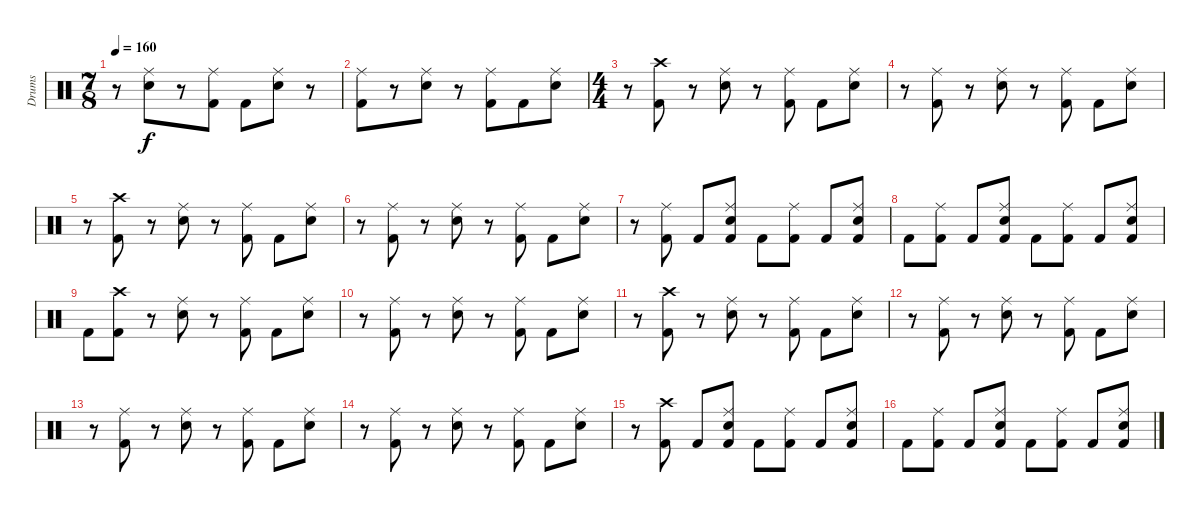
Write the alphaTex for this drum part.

\track ("Drums" "Drums") {instrument percussion}
\staff {score}
\articulation defaults
\ts (7 8)
\tempo 160
\clef neutral
\ks c
r.8{dy f} ("Snare (hit) 2" "Ride (middle)").8 r.8 ("Kick (hit) 2" "Ride (middle)").8 "Kick (hit) 2".8 ("Snare (hit) 2" "Ride (middle)").8 r.8 |
("Kick (hit) 2" "Ride (middle)").8 r.8 ("Snare (hit) 2" "Ride (middle)").8 r.8 ("Kick (hit) 2" "Ride (middle)").8 "Kick (hit) 2".8 ("Snare (hit) 2" "Ride (middle)").8 |
\ts (4 4)
r.8 ("Kick (hit) 2" "Crash high (hit)").8 r.8 ("Snare (hit) 2" "Ride (middle)").8 r.8 ("Kick (hit) 2" "Ride (middle)").8 "Kick (hit) 2".8 ("Snare (hit) 2" "Ride (middle)").8 |
r.8 ("Kick (hit) 2" "Ride (middle)").8 r.8 ("Snare (hit) 2" "Ride (middle)").8 r.8 ("Kick (hit) 2" "Ride (middle)").8 "Kick (hit) 2".8 ("Snare (hit) 2" "Ride (middle)").8 |
r.8 ("Kick (hit) 2" "Crash high (hit)").8 r.8 ("Snare (hit) 2" "Ride (middle)").8 r.8 ("Kick (hit) 2" "Ride (middle)").8 "Kick (hit) 2".8 ("Snare (hit) 2" "Ride (middle)").8 |
r.8 ("Kick (hit) 2" "Ride (middle)").8 r.8 ("Snare (hit) 2" "Ride (middle)").8 r.8 ("Kick (hit) 2" "Ride (middle)").8 "Kick (hit) 2".8 ("Snare (hit) 2" "Ride (middle)").8 |
r.8 ("Kick (hit) 2" "Ride (middle)").8 "Kick (hit) 2".8 ("Snare (hit) 2" "Kick (hit) 2" "Ride (middle)").8 "Kick (hit) 2".8 ("Kick (hit) 2" "Ride (middle)").8 "Kick (hit) 2".8 ("Snare (hit) 2" "Kick (hit) 2" "Ride (middle)").8 |
"Kick (hit) 2".8 ("Kick (hit) 2" "Ride (middle)").8 "Kick (hit) 2".8 ("Snare (hit) 2" "Kick (hit) 2" "Ride (middle)").8 "Kick (hit) 2".8 ("Kick (hit) 2" "Ride (middle)").8 "Kick (hit) 2".8 ("Snare (hit) 2" "Kick (hit) 2" "Ride (middle)").8 |
"Kick (hit) 2".8 ("Kick (hit) 2" "Crash high (hit)").8 r.8 ("Snare (hit) 2" "Ride (middle)").8 r.8 ("Kick (hit) 2" "Ride (middle)").8 "Kick (hit) 2".8 ("Snare (hit) 2" "Ride (middle)").8 |
r.8 ("Kick (hit) 2" "Ride (middle)").8 r.8 ("Snare (hit) 2" "Ride (middle)").8 r.8 ("Kick (hit) 2" "Ride (middle)").8 "Kick (hit) 2".8 ("Snare (hit) 2" "Ride (middle)").8 |
r.8 ("Kick (hit) 2" "Crash high (hit)").8 r.8 ("Snare (hit) 2" "Ride (middle)").8 r.8 ("Kick (hit) 2" "Ride (middle)").8 "Kick (hit) 2".8 ("Snare (hit) 2" "Ride (middle)").8 |
r.8 ("Kick (hit) 2" "Ride (middle)").8 r.8 ("Snare (hit) 2" "Ride (middle)").8 r.8 ("Kick (hit) 2" "Ride (middle)").8 "Kick (hit) 2".8 ("Snare (hit) 2" "Ride (middle)").8 |
r.8 ("Kick (hit) 2" "Ride (middle)").8 r.8 ("Snare (hit) 2" "Ride (middle)").8 r.8 ("Kick (hit) 2" "Ride (middle)").8 "Kick (hit) 2".8 ("Snare (hit) 2" "Ride (middle)").8 |
r.8 ("Kick (hit) 2" "Ride (middle)").8 r.8 ("Snare (hit) 2" "Ride (middle)").8 r.8 ("Kick (hit) 2" "Ride (middle)").8 "Kick (hit) 2".8 ("Snare (hit) 2" "Ride (middle)").8 |
r.8 ("Kick (hit) 2" "Crash high (hit)").8 "Kick (hit) 2".8 ("Snare (hit) 2" "Kick (hit) 2" "Ride (middle)").8 "Kick (hit) 2".8 ("Kick (hit) 2" "Ride (middle)").8 "Kick (hit) 2".8 ("Snare (hit) 2" "Kick (hit) 2" "Ride (middle)").8 |
"Kick (hit) 2".8 ("Kick (hit) 2" "Ride (middle)").8 "Kick (hit) 2".8 ("Snare (hit) 2" "Kick (hit) 2" "Ride (middle)").8 "Kick (hit) 2".8 ("Kick (hit) 2" "Ride (middle)").8 "Kick (hit) 2".8 ("Snare (hit) 2" "Kick (hit) 2" "Ride (middle)").8
